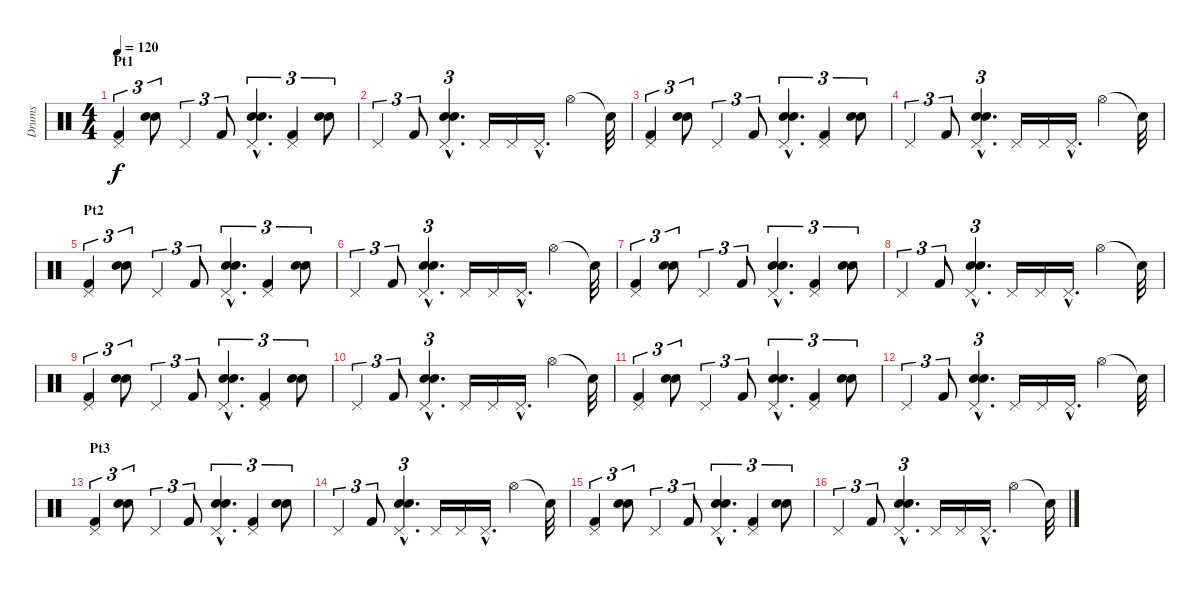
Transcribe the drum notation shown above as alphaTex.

\track ("Drums" "Drums") {instrument percussion}
\staff {score}
\articulation defaults
\ts (4 4)
\section ("" "Pt1")
\tempo 120
\clef neutral
\ks c
("Pedal Hi-Hat (hit)" "Kick (hit) 2").4{tu (3 2) dy f volume 0 balance 8} ("Electric Snare (hit)" "Snare (hit) 2").8{tu (3 2) volume 16} "Pedal Hi-Hat (hit)".4{tu (3 2)} "Kick (hit) 2".8{tu (3 2)} ("Pedal Hi-Hat (hit)"{hac} "Electric Snare (hit)"{hac} "Snare (hit) 2"{hac}).4{d tu (3 2)} ("Pedal Hi-Hat (hit)" "Kick (hit) 2").4{tu (3 2)} ("Electric Snare (hit)" "Snare (hit) 2").8{tu (3 2)} |
"Pedal Hi-Hat (hit)".4{tu (3 2)} "Kick (hit) 2".8{tu (3 2)} ("Pedal Hi-Hat (hit)"{hac} "Electric Snare (hit)"{hac} "Snare (hit) 2"{hac}).4{d tu (3 2)} "Pedal Hi-Hat (hit)".16 "Pedal Hi-Hat (hit)".16 "Pedal Hi-Hat (hit)"{hac}.16{d} "Hi-Hat (open)".4 "Snare (hit)"{t}.32 |
("Pedal Hi-Hat (hit)" "Kick (hit) 2").4{tu (3 2)} ("Electric Snare (hit)" "Snare (hit) 2").8{tu (3 2)} "Pedal Hi-Hat (hit)".4{tu (3 2)} "Kick (hit) 2".8{tu (3 2)} ("Pedal Hi-Hat (hit)"{hac} "Electric Snare (hit)"{hac} "Snare (hit) 2"{hac}).4{d tu (3 2)} ("Pedal Hi-Hat (hit)" "Kick (hit) 2").4{tu (3 2)} ("Electric Snare (hit)" "Snare (hit) 2").8{tu (3 2)} |
"Pedal Hi-Hat (hit)".4{tu (3 2)} "Kick (hit) 2".8{tu (3 2)} ("Pedal Hi-Hat (hit)"{hac} "Electric Snare (hit)"{hac} "Snare (hit) 2"{hac}).4{d tu (3 2)} "Pedal Hi-Hat (hit)".16 "Pedal Hi-Hat (hit)".16 "Pedal Hi-Hat (hit)"{hac}.16{d} "Hi-Hat (open)".4 "Snare (hit)"{t}.32 |
\section ("" "Pt2")
("Pedal Hi-Hat (hit)" "Kick (hit) 2").4{tu (3 2) volume 16} ("Electric Snare (hit)" "Snare (hit) 2").8{tu (3 2)} "Pedal Hi-Hat (hit)".4{tu (3 2)} "Kick (hit) 2".8{tu (3 2)} ("Pedal Hi-Hat (hit)"{hac} "Electric Snare (hit)"{hac} "Snare (hit) 2"{hac}).4{d tu (3 2)} ("Pedal Hi-Hat (hit)" "Kick (hit) 2").4{tu (3 2)} ("Electric Snare (hit)" "Snare (hit) 2").8{tu (3 2)} |
"Pedal Hi-Hat (hit)".4{tu (3 2)} "Kick (hit) 2".8{tu (3 2)} ("Pedal Hi-Hat (hit)"{hac} "Electric Snare (hit)"{hac} "Snare (hit) 2"{hac}).4{d tu (3 2)} "Pedal Hi-Hat (hit)".16 "Pedal Hi-Hat (hit)".16 "Pedal Hi-Hat (hit)"{hac}.16{d} "Hi-Hat (open)".4 "Snare (hit)"{t}.32 |
("Pedal Hi-Hat (hit)" "Kick (hit) 2").4{tu (3 2)} ("Electric Snare (hit)" "Snare (hit) 2").8{tu (3 2)} "Pedal Hi-Hat (hit)".4{tu (3 2)} "Kick (hit) 2".8{tu (3 2)} ("Pedal Hi-Hat (hit)"{hac} "Electric Snare (hit)"{hac} "Snare (hit) 2"{hac}).4{d tu (3 2)} ("Pedal Hi-Hat (hit)" "Kick (hit) 2").4{tu (3 2)} ("Electric Snare (hit)" "Snare (hit) 2").8{tu (3 2)} |
"Pedal Hi-Hat (hit)".4{tu (3 2)} "Kick (hit) 2".8{tu (3 2)} ("Pedal Hi-Hat (hit)"{hac} "Electric Snare (hit)"{hac} "Snare (hit) 2"{hac}).4{d tu (3 2)} "Pedal Hi-Hat (hit)".16 "Pedal Hi-Hat (hit)".16 "Pedal Hi-Hat (hit)"{hac}.16{d} "Hi-Hat (open)".4 "Snare (hit)"{t}.32 |
("Pedal Hi-Hat (hit)" "Kick (hit) 2").4{tu (3 2)} ("Electric Snare (hit)" "Snare (hit) 2").8{tu (3 2)} "Pedal Hi-Hat (hit)".4{tu (3 2)} "Kick (hit) 2".8{tu (3 2)} ("Pedal Hi-Hat (hit)"{hac} "Electric Snare (hit)"{hac} "Snare (hit) 2"{hac}).4{d tu (3 2)} ("Pedal Hi-Hat (hit)" "Kick (hit) 2").4{tu (3 2)} ("Electric Snare (hit)" "Snare (hit) 2").8{tu (3 2)} |
"Pedal Hi-Hat (hit)".4{tu (3 2)} "Kick (hit) 2".8{tu (3 2)} ("Pedal Hi-Hat (hit)"{hac} "Electric Snare (hit)"{hac} "Snare (hit) 2"{hac}).4{d tu (3 2)} "Pedal Hi-Hat (hit)".16 "Pedal Hi-Hat (hit)".16 "Pedal Hi-Hat (hit)"{hac}.16{d} "Hi-Hat (open)".4 "Snare (hit)"{t}.32 |
("Pedal Hi-Hat (hit)" "Kick (hit) 2").4{tu (3 2)} ("Electric Snare (hit)" "Snare (hit) 2").8{tu (3 2)} "Pedal Hi-Hat (hit)".4{tu (3 2)} "Kick (hit) 2".8{tu (3 2)} ("Pedal Hi-Hat (hit)"{hac} "Electric Snare (hit)"{hac} "Snare (hit) 2"{hac}).4{d tu (3 2)} ("Pedal Hi-Hat (hit)" "Kick (hit) 2").4{tu (3 2)} ("Electric Snare (hit)" "Snare (hit) 2").8{tu (3 2)} |
"Pedal Hi-Hat (hit)".4{tu (3 2)} "Kick (hit) 2".8{tu (3 2)} ("Pedal Hi-Hat (hit)"{hac} "Electric Snare (hit)"{hac} "Snare (hit) 2"{hac}).4{d tu (3 2)} "Pedal Hi-Hat (hit)".16 "Pedal Hi-Hat (hit)".16 "Pedal Hi-Hat (hit)"{hac}.16{d} "Hi-Hat (open)".4 "Snare (hit)"{t}.32 |
\section ("" "Pt3")
("Pedal Hi-Hat (hit)" "Kick (hit) 2").4{tu (3 2) volume 16} ("Electric Snare (hit)" "Snare (hit) 2").8{tu (3 2)} "Pedal Hi-Hat (hit)".4{tu (3 2)} "Kick (hit) 2".8{tu (3 2)} ("Pedal Hi-Hat (hit)"{hac} "Electric Snare (hit)"{hac} "Snare (hit) 2"{hac}).4{d tu (3 2)} ("Pedal Hi-Hat (hit)" "Kick (hit) 2").4{tu (3 2)} ("Electric Snare (hit)" "Snare (hit) 2").8{tu (3 2)} |
"Pedal Hi-Hat (hit)".4{tu (3 2)} "Kick (hit) 2".8{tu (3 2)} ("Pedal Hi-Hat (hit)"{hac} "Electric Snare (hit)"{hac} "Snare (hit) 2"{hac}).4{d tu (3 2)} "Pedal Hi-Hat (hit)".16 "Pedal Hi-Hat (hit)".16 "Pedal Hi-Hat (hit)"{hac}.16{d} "Hi-Hat (open)".4 "Snare (hit)"{t}.32 |
("Pedal Hi-Hat (hit)" "Kick (hit) 2").4{tu (3 2)} ("Electric Snare (hit)" "Snare (hit) 2").8{tu (3 2)} "Pedal Hi-Hat (hit)".4{tu (3 2)} "Kick (hit) 2".8{tu (3 2)} ("Pedal Hi-Hat (hit)"{hac} "Electric Snare (hit)"{hac} "Snare (hit) 2"{hac}).4{d tu (3 2)} ("Pedal Hi-Hat (hit)" "Kick (hit) 2").4{tu (3 2)} ("Electric Snare (hit)" "Snare (hit) 2").8{tu (3 2)} |
"Pedal Hi-Hat (hit)".4{tu (3 2)} "Kick (hit) 2".8{tu (3 2)} ("Pedal Hi-Hat (hit)"{hac} "Electric Snare (hit)"{hac} "Snare (hit) 2"{hac}).4{d tu (3 2)} "Pedal Hi-Hat (hit)".16 "Pedal Hi-Hat (hit)".16 "Pedal Hi-Hat (hit)"{hac}.16{d} "Hi-Hat (open)".4 "Snare (hit)"{t}.32
